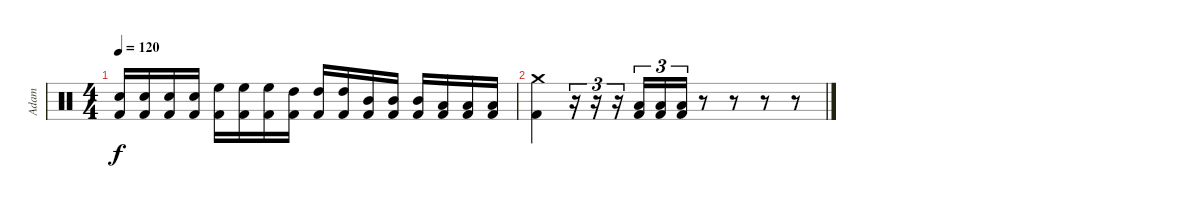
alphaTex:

\track ("Adam" "Adam") {instrument percussion}
\staff {score}
\articulation defaults
\ts (4 4)
\tempo 120
\clef neutral
\ks c
("Snare (hit) 2" "Kick (hit) 2").16{dy f} ("Snare (hit) 2" "Kick (hit) 2").16 ("Snare (hit) 2" "Kick (hit) 2").16 ("Snare (hit) 2" "Kick (hit) 2").16 ("High Floor Tom (hit)" "Kick (hit) 2").16 ("High Floor Tom (hit)" "Kick (hit) 2").16 ("High Floor Tom (hit)" "Kick (hit) 2").16 ("High Tom (hit)" "Kick (hit) 2").16 ("High Tom (hit)" "Kick (hit) 2").16 ("High Tom (hit)" "Kick (hit) 2").16 ("Mid Tom (hit)" "Kick (hit) 2").16 ("Mid Tom (hit)" "Kick (hit) 2").16 ("Mid Tom (hit)" "Kick (hit) 2").16 ("Low Tom (hit)" "Kick (hit) 2").16 ("Low Tom (hit)" "Kick (hit) 2").16 ("Low Tom (hit)" "Kick (hit) 2").16 |
("Crash medium (hit)" "Kick (hit) 2").4 r.16{tu (3 2)} r.16{tu (3 2)} r.16{tu (3 2)} ("Low Tom (hit)" "Kick (hit) 2").16{tu (3 2)} ("Low Tom (hit)" "Kick (hit) 2").16{tu (3 2)} ("Low Tom (hit)" "Kick (hit) 2").16{tu (3 2)} r.8 r.8 r.8 r.8
